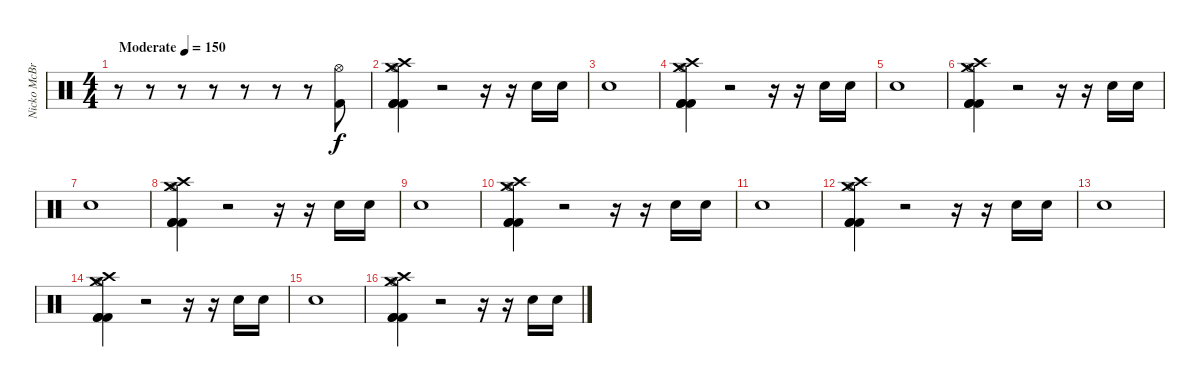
\track ("Nicko McBrain" "Nicko McBr") {instrument percussion}
\staff {score}
\articulation defaults
\ts (4 4)
\tempo (150 "Moderate")
\clef neutral
\ks c
r.8{dy f} r.8 r.8 r.8 r.8 r.8 r.8 ("Hi-Hat (open)" "Kick (hit) 2").8 |
("Crash medium (hit)" "Crash high (hit)" "Hi-Hat (open)" "Kick (hit) 2" "Kick (hit) 2" "Kick (hit) 2").4 r.2 r.16 r.16 "Snare (hit) 2".16 "Snare (hit) 2".16 |
"Snare (hit) 2".1 |
("Crash medium (hit)" "Crash high (hit)" "Hi-Hat (open)" "Kick (hit) 2" "Kick (hit) 2" "Kick (hit) 2").4 r.2 r.16 r.16 "Snare (hit) 2".16 "Snare (hit) 2".16 |
"Snare (hit) 2".1 |
("Crash medium (hit)" "Crash high (hit)" "Hi-Hat (open)" "Kick (hit) 2" "Kick (hit) 2" "Kick (hit) 2").4 r.2 r.16 r.16 "Snare (hit) 2".16 "Snare (hit) 2".16 |
"Snare (hit) 2".1 |
("Crash medium (hit)" "Crash high (hit)" "Hi-Hat (open)" "Kick (hit) 2" "Kick (hit) 2" "Kick (hit) 2").4 r.2 r.16 r.16 "Snare (hit) 2".16 "Snare (hit) 2".16 |
"Snare (hit) 2".1 |
("Crash medium (hit)" "Crash high (hit)" "Hi-Hat (open)" "Kick (hit) 2" "Kick (hit) 2" "Kick (hit) 2").4 r.2 r.16 r.16 "Snare (hit) 2".16 "Snare (hit) 2".16 |
"Snare (hit) 2".1 |
("Crash medium (hit)" "Crash high (hit)" "Hi-Hat (open)" "Kick (hit) 2" "Kick (hit) 2" "Kick (hit) 2").4 r.2 r.16 r.16 "Snare (hit) 2".16 "Snare (hit) 2".16 |
"Snare (hit) 2".1 |
("Crash medium (hit)" "Crash high (hit)" "Hi-Hat (open)" "Kick (hit) 2" "Kick (hit) 2" "Kick (hit) 2").4 r.2 r.16 r.16 "Snare (hit) 2".16 "Snare (hit) 2".16 |
"Snare (hit) 2".1 |
("Crash medium (hit)" "Crash high (hit)" "Hi-Hat (open)" "Kick (hit) 2" "Kick (hit) 2" "Kick (hit) 2").4 r.2 r.16 r.16 "Snare (hit) 2".16 "Snare (hit) 2".16
